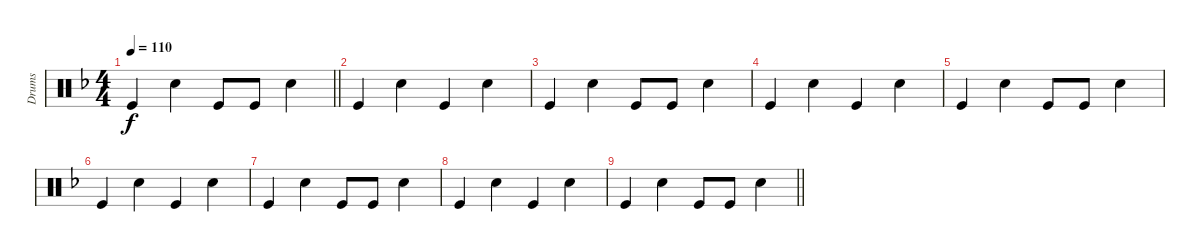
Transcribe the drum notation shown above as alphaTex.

\track ("Drums" "Drums") {instrument percussion}
\staff {score}
\articulation defaults
\ts (4 4)
\tempo 110
\clef neutral
\barLineRight lightlight
\ks dminor "Kick (hit)".4{dy f} "Snare (hit) 2".4 "Kick (hit)".8 "Kick (hit)".8 "Snare (hit) 2".4
|
"Kick (hit)".4 "Snare (hit) 2".4 "Kick (hit)".4 "Snare (hit) 2".4 |
"Kick (hit)".4 "Snare (hit) 2".4 "Kick (hit)".8 "Kick (hit)".8 "Snare (hit) 2".4 |
"Kick (hit)".4 "Snare (hit) 2".4 "Kick (hit)".4 "Snare (hit) 2".4 |
"Kick (hit)".4 "Snare (hit) 2".4 "Kick (hit)".8 "Kick (hit)".8 "Snare (hit) 2".4 |
"Kick (hit)".4 "Snare (hit) 2".4 "Kick (hit)".4 "Snare (hit) 2".4 |
"Kick (hit)".4 "Snare (hit) 2".4 "Kick (hit)".8 "Kick (hit)".8 "Snare (hit) 2".4 |
"Kick (hit)".4 "Snare (hit) 2".4 "Kick (hit)".4 "Snare (hit) 2".4 |
\barLineRight lightlight "Kick (hit)".4 "Snare (hit) 2".4 "Kick (hit)".8 "Kick (hit)".8 "Snare (hit) 2".4
